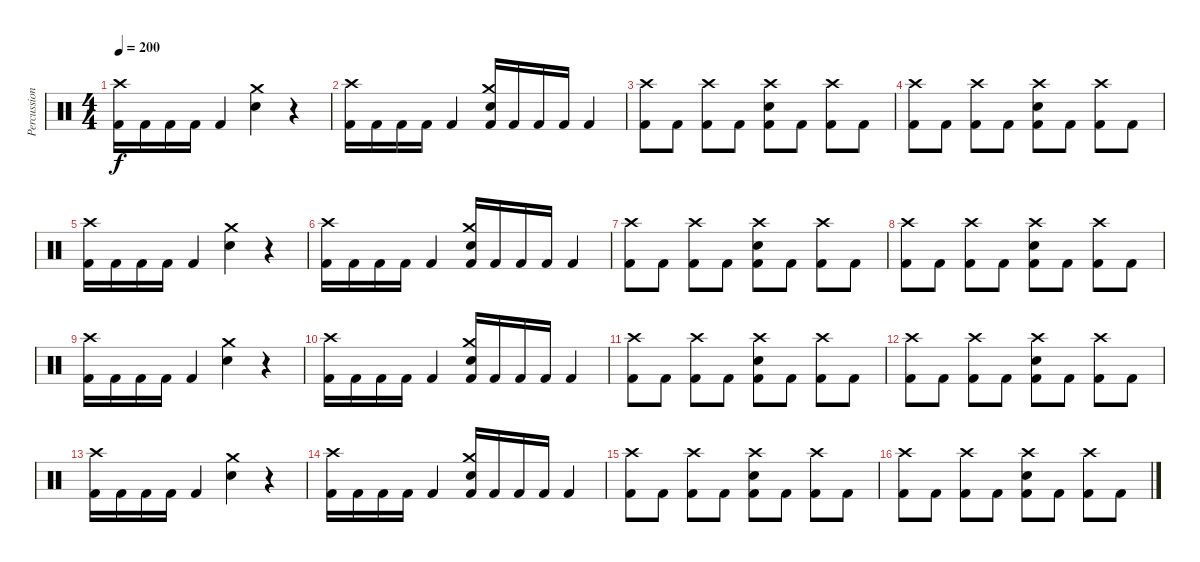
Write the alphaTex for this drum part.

\track ("Percussion" "Percussion") {instrument percussion}
\staff {score}
\articulation defaults
\ts (4 4)
\tempo 200
\clef neutral
\ks c
("Crash high (hit)" "Kick (hit) 2").16{dy f} "Kick (hit) 2".16 "Kick (hit) 2".16 "Kick (hit) 2".16 "Kick (hit) 2".4 ("Crash medium (hit)" "Electric Snare (hit)").4 r.4 |
("Crash high (hit)" "Kick (hit) 2").16 "Kick (hit) 2".16 "Kick (hit) 2".16 "Kick (hit) 2".16 "Kick (hit) 2".4 ("Crash medium (hit)" "Electric Snare (hit)" "Kick (hit) 2").16 "Kick (hit) 2".16 "Kick (hit) 2".16 "Kick (hit) 2".16 "Kick (hit) 2".4 |
("Crash high (hit)" "Kick (hit) 2").8 "Kick (hit) 2".8 ("Crash high (hit)" "Kick (hit) 2").8 "Kick (hit) 2".8 ("Crash high (hit)" "Electric Snare (hit)" "Kick (hit) 2").8 "Kick (hit) 2".8 ("Crash high (hit)" "Kick (hit) 2").8 "Kick (hit) 2".8 |
("Crash high (hit)" "Kick (hit) 2").8 "Kick (hit) 2".8 ("Crash high (hit)" "Kick (hit) 2").8 "Kick (hit) 2".8 ("Crash high (hit)" "Electric Snare (hit)" "Kick (hit) 2").8 "Kick (hit) 2".8 ("Crash high (hit)" "Kick (hit) 2").8 "Kick (hit) 2".8 |
("Crash high (hit)" "Kick (hit) 2").16 "Kick (hit) 2".16 "Kick (hit) 2".16 "Kick (hit) 2".16 "Kick (hit) 2".4 ("Crash medium (hit)" "Electric Snare (hit)").4 r.4 |
("Crash high (hit)" "Kick (hit) 2").16 "Kick (hit) 2".16 "Kick (hit) 2".16 "Kick (hit) 2".16 "Kick (hit) 2".4 ("Crash medium (hit)" "Electric Snare (hit)" "Kick (hit) 2").16 "Kick (hit) 2".16 "Kick (hit) 2".16 "Kick (hit) 2".16 "Kick (hit) 2".4 |
("Crash high (hit)" "Kick (hit) 2").8 "Kick (hit) 2".8 ("Crash high (hit)" "Kick (hit) 2").8 "Kick (hit) 2".8 ("Crash high (hit)" "Electric Snare (hit)" "Kick (hit) 2").8 "Kick (hit) 2".8 ("Crash high (hit)" "Kick (hit) 2").8 "Kick (hit) 2".8 |
("Crash high (hit)" "Kick (hit) 2").8 "Kick (hit) 2".8 ("Crash high (hit)" "Kick (hit) 2").8 "Kick (hit) 2".8 ("Crash high (hit)" "Electric Snare (hit)" "Kick (hit) 2").8 "Kick (hit) 2".8 ("Crash high (hit)" "Kick (hit) 2").8 "Kick (hit) 2".8 |
("Crash high (hit)" "Kick (hit) 2").16 "Kick (hit) 2".16 "Kick (hit) 2".16 "Kick (hit) 2".16 "Kick (hit) 2".4 ("Crash medium (hit)" "Electric Snare (hit)").4 r.4 |
("Crash high (hit)" "Kick (hit) 2").16 "Kick (hit) 2".16 "Kick (hit) 2".16 "Kick (hit) 2".16 "Kick (hit) 2".4 ("Crash medium (hit)" "Electric Snare (hit)" "Kick (hit) 2").16 "Kick (hit) 2".16 "Kick (hit) 2".16 "Kick (hit) 2".16 "Kick (hit) 2".4 |
("Crash high (hit)" "Kick (hit) 2").8 "Kick (hit) 2".8 ("Crash high (hit)" "Kick (hit) 2").8 "Kick (hit) 2".8 ("Crash high (hit)" "Electric Snare (hit)" "Kick (hit) 2").8 "Kick (hit) 2".8 ("Crash high (hit)" "Kick (hit) 2").8 "Kick (hit) 2".8 |
("Crash high (hit)" "Kick (hit) 2").8 "Kick (hit) 2".8 ("Crash high (hit)" "Kick (hit) 2").8 "Kick (hit) 2".8 ("Crash high (hit)" "Electric Snare (hit)" "Kick (hit) 2").8 "Kick (hit) 2".8 ("Crash high (hit)" "Kick (hit) 2").8 "Kick (hit) 2".8 |
("Crash high (hit)" "Kick (hit) 2").16 "Kick (hit) 2".16 "Kick (hit) 2".16 "Kick (hit) 2".16 "Kick (hit) 2".4 ("Crash medium (hit)" "Electric Snare (hit)").4 r.4 |
("Crash high (hit)" "Kick (hit) 2").16 "Kick (hit) 2".16 "Kick (hit) 2".16 "Kick (hit) 2".16 "Kick (hit) 2".4 ("Crash medium (hit)" "Electric Snare (hit)" "Kick (hit) 2").16 "Kick (hit) 2".16 "Kick (hit) 2".16 "Kick (hit) 2".16 "Kick (hit) 2".4 |
("Crash high (hit)" "Kick (hit) 2").8 "Kick (hit) 2".8 ("Crash high (hit)" "Kick (hit) 2").8 "Kick (hit) 2".8 ("Crash high (hit)" "Electric Snare (hit)" "Kick (hit) 2").8 "Kick (hit) 2".8 ("Crash high (hit)" "Kick (hit) 2").8 "Kick (hit) 2".8 |
("Crash high (hit)" "Kick (hit) 2").8 "Kick (hit) 2".8 ("Crash high (hit)" "Kick (hit) 2").8 "Kick (hit) 2".8 ("Crash high (hit)" "Electric Snare (hit)" "Kick (hit) 2").8 "Kick (hit) 2".8 ("Crash high (hit)" "Kick (hit) 2").8 "Kick (hit) 2".8
